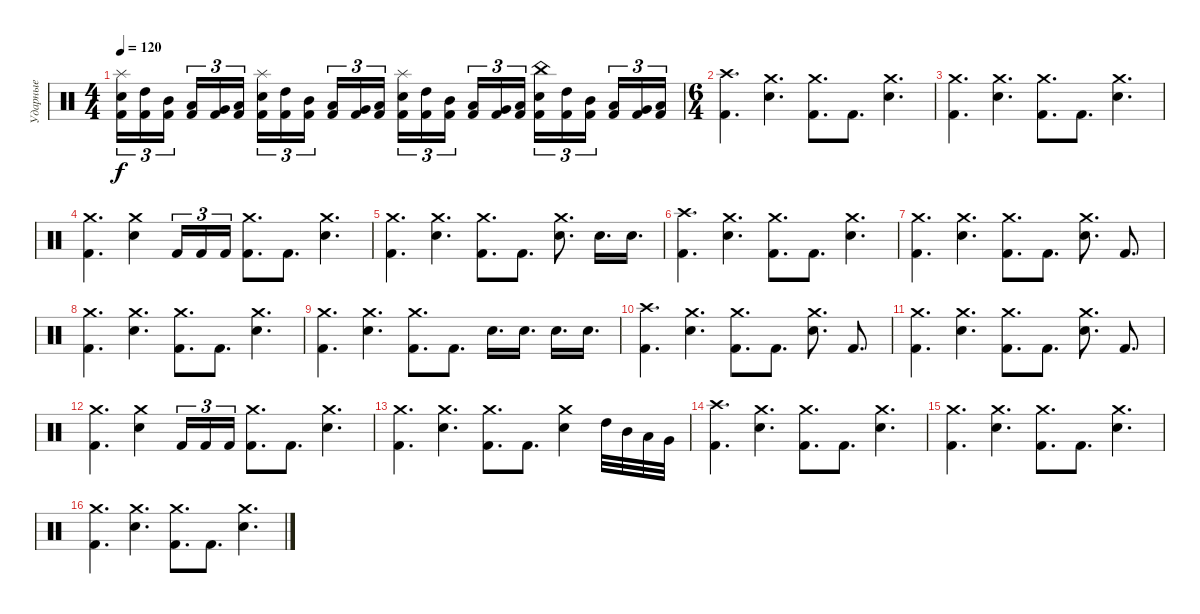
\track ("Ударные" "Ударные") {instrument percussion}
\staff {score}
\articulation defaults
\ts (4 4)
\tempo 120
\clef neutral
\ks c
("Splash (hit)" "Electric Snare (hit)" "Kick (hit) 2").16{tu (3 2) dy f} ("High Tom (hit)" "Kick (hit) 2").16{tu (3 2)} ("Mid Tom (hit)" "Kick (hit) 2").16{tu (3 2) beam splitsecondary} ("Low Tom (hit)" "Kick (hit) 2").16{tu (3 2)} ("Very Low Tom (hit)" "Kick (hit) 2").16{tu (3 2)} ("Low Floor Tom (hit)" "Kick (hit) 2").16{tu (3 2)} ("Splash (hit)" "Electric Snare (hit)" "Kick (hit) 2").16{tu (3 2)} ("High Tom (hit)" "Kick (hit) 2").16{tu (3 2)} ("Mid Tom (hit)" "Kick (hit) 2").16{tu (3 2) beam splitsecondary} ("Low Tom (hit)" "Kick (hit) 2").16{tu (3 2)} ("Very Low Tom (hit)" "Kick (hit) 2").16{tu (3 2)} ("Low Floor Tom (hit)" "Kick (hit) 2").16{tu (3 2)} ("Splash (hit)" "Electric Snare (hit)" "Kick (hit) 2").16{tu (3 2)} ("High Tom (hit)" "Kick (hit) 2").16{tu (3 2)} ("Mid Tom (hit)" "Kick (hit) 2").16{tu (3 2) beam splitsecondary} ("Low Tom (hit)" "Kick (hit) 2").16{tu (3 2)} ("Very Low Tom (hit)" "Kick (hit) 2").16{tu (3 2)} ("Low Floor Tom (hit)" "Kick (hit) 2").16{tu (3 2)} ("China (hit)" "Electric Snare (hit)" "Kick (hit) 2").16{tu (3 2)} ("High Tom (hit)" "Kick (hit) 2").16{tu (3 2)} ("Mid Tom (hit)" "Kick (hit) 2").16{tu (3 2) beam splitsecondary} ("Low Tom (hit)" "Kick (hit) 2").16{tu (3 2)} ("Very Low Tom (hit)" "Kick (hit) 2").16{tu (3 2)} ("Low Floor Tom (hit)" "Kick (hit) 2").16{tu (3 2)} |
\ts (6 4)
("Crash high (hit)" "Kick (hit) 2").4{d} ("Crash medium (hit)" "Electric Snare (hit)").4{d} ("Crash medium (hit)" "Kick (hit) 2").8{d} "Kick (hit) 2".8{d} ("Crash medium (hit)" "Electric Snare (hit)").4{d} |
("Crash medium (hit)" "Kick (hit) 2").4{d} ("Crash medium (hit)" "Electric Snare (hit)").4{d} ("Crash medium (hit)" "Kick (hit) 2").8{d} "Kick (hit) 2".8{d} ("Crash medium (hit)" "Electric Snare (hit)").4{d} |
("Crash medium (hit)" "Kick (hit) 2").4{d} ("Crash medium (hit)" "Electric Snare (hit)").4 "Kick (hit) 2".16{tu (3 2)} "Kick (hit) 2".16{tu (3 2)} "Kick (hit) 2".16{tu (3 2)} ("Crash medium (hit)" "Kick (hit) 2").8{d} "Kick (hit) 2".8{d} ("Crash medium (hit)" "Electric Snare (hit)").4{d} |
("Crash medium (hit)" "Kick (hit) 2").4{d} ("Crash medium (hit)" "Electric Snare (hit)").4{d} ("Crash medium (hit)" "Kick (hit) 2").8{d} "Kick (hit) 2".8{d} ("Crash medium (hit)" "Electric Snare (hit)").8{d} "Electric Snare (hit)".16{d} "Electric Snare (hit)".16{d} |
("Crash high (hit)" "Kick (hit) 2").4{d} ("Crash medium (hit)" "Electric Snare (hit)").4{d} ("Crash medium (hit)" "Kick (hit) 2").8{d} "Kick (hit) 2".8{d} ("Crash medium (hit)" "Electric Snare (hit)").4{d} |
("Crash medium (hit)" "Kick (hit) 2").4{d} ("Crash medium (hit)" "Electric Snare (hit)").4{d} ("Crash medium (hit)" "Kick (hit) 2").8{d} "Kick (hit) 2".8{d} ("Crash medium (hit)" "Electric Snare (hit)").8{d} "Kick (hit) 2".8{d} |
("Crash medium (hit)" "Kick (hit) 2").4{d} ("Crash medium (hit)" "Electric Snare (hit)").4{d} ("Crash medium (hit)" "Kick (hit) 2").8{d} "Kick (hit) 2".8{d} ("Crash medium (hit)" "Electric Snare (hit)").4{d} |
("Crash medium (hit)" "Kick (hit) 2").4{d} ("Crash medium (hit)" "Electric Snare (hit)").4{d} ("Crash medium (hit)" "Kick (hit) 2").8{d} "Kick (hit) 2".8{d} "Electric Snare (hit)".16{d} "Electric Snare (hit)".16{d} "Electric Snare (hit)".16{d} "Electric Snare (hit)".16{d} |
("Crash high (hit)" "Kick (hit) 2").4{d} ("Crash medium (hit)" "Electric Snare (hit)").4{d} ("Crash medium (hit)" "Kick (hit) 2").8{d} "Kick (hit) 2".8{d} ("Crash medium (hit)" "Electric Snare (hit)").8{d} "Kick (hit) 2".8{d} |
("Crash medium (hit)" "Kick (hit) 2").4{d} ("Crash medium (hit)" "Electric Snare (hit)").4{d} ("Crash medium (hit)" "Kick (hit) 2").8{d} "Kick (hit) 2".8{d} ("Crash medium (hit)" "Electric Snare (hit)").8{d} "Kick (hit) 2".8{d} |
("Crash medium (hit)" "Kick (hit) 2").4{d} ("Crash medium (hit)" "Electric Snare (hit)").4 "Kick (hit) 2".16{tu (3 2)} "Kick (hit) 2".16{tu (3 2)} "Kick (hit) 2".16{tu (3 2)} ("Crash medium (hit)" "Kick (hit) 2").8{d} "Kick (hit) 2".8{d} ("Crash medium (hit)" "Electric Snare (hit)").4{d} |
("Crash medium (hit)" "Kick (hit) 2").4{d} ("Crash medium (hit)" "Electric Snare (hit)").4{d} ("Crash medium (hit)" "Kick (hit) 2").8{d} "Kick (hit) 2".8{d} ("Crash medium (hit)" "Electric Snare (hit)").4 "High Tom (hit)".32 "Mid Tom (hit)".32 "Low Tom (hit)".32 "Very Low Tom (hit)".32 |
("Crash high (hit)" "Kick (hit) 2").4{d} ("Crash medium (hit)" "Electric Snare (hit)").4{d} ("Crash medium (hit)" "Kick (hit) 2").8{d} "Kick (hit) 2".8{d} ("Crash medium (hit)" "Electric Snare (hit)").4{d} |
("Crash medium (hit)" "Kick (hit) 2").4{d} ("Crash medium (hit)" "Electric Snare (hit)").4{d} ("Crash medium (hit)" "Kick (hit) 2").8{d} "Kick (hit) 2".8{d} ("Crash medium (hit)" "Electric Snare (hit)").4{d} |
("Crash medium (hit)" "Kick (hit) 2").4{d} ("Crash medium (hit)" "Electric Snare (hit)").4{d} ("Crash medium (hit)" "Kick (hit) 2").8{d} "Kick (hit) 2".8{d} ("Crash medium (hit)" "Electric Snare (hit)").4{d}
